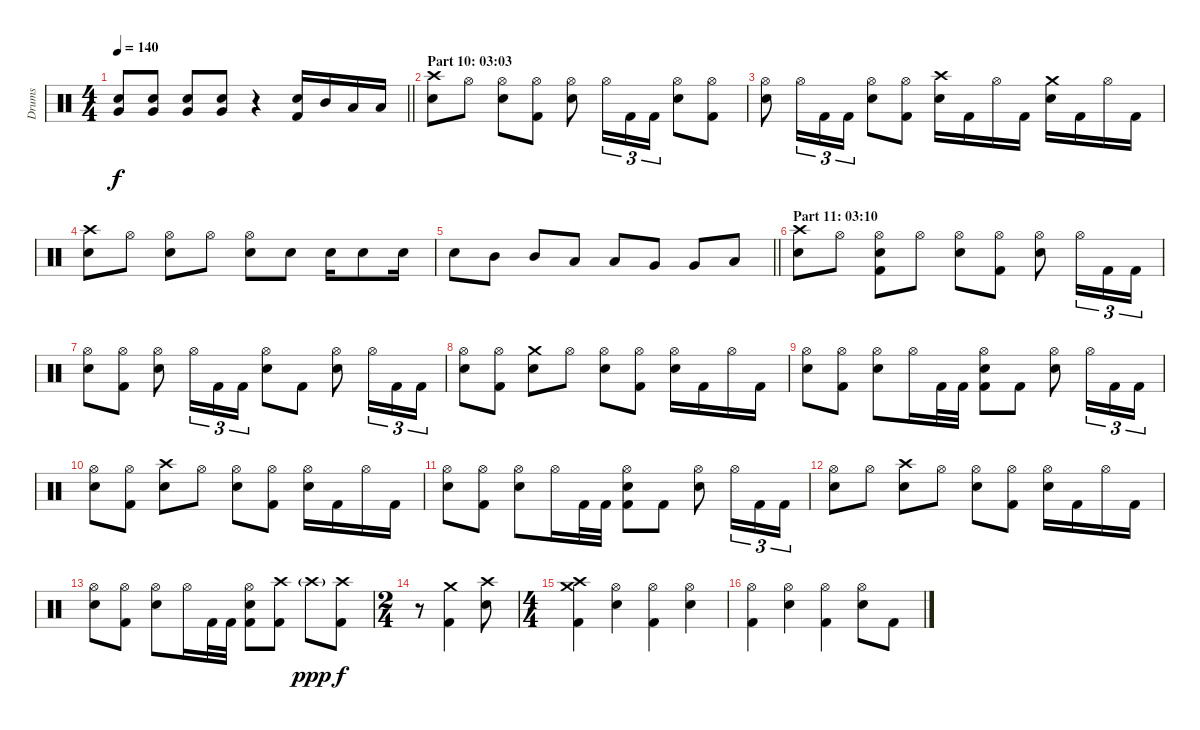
\track ("Drums" "Drums") {instrument percussion}
\staff {score}
\articulation defaults
\ts (4 4)
\tempo 140
\clef neutral
\barLineRight lightlight
\ks c
("Electric Snare (hit)" "Very Low Tom (hit)").8{dy f} ("Electric Snare (hit)" "Very Low Tom (hit)").8 ("Electric Snare (hit)" "Very Low Tom (hit)").8 ("Electric Snare (hit)" "Very Low Tom (hit)").8 r.4 ("Electric Snare (hit)" "Kick (hit) 2").16 "Mid Tom (hit)".16 "Low Tom (hit)".16 "Low Tom (hit)".16 |
\section ("" "Part 10: 03:03")
("Crash high (hit)" "Electric Snare (hit)").8 "Hi-Hat (open)".8 ("Hi-Hat (open)" "Electric Snare (hit)").8 ("Hi-Hat (open)" "Kick (hit) 2").8 ("Hi-Hat (open)" "Electric Snare (hit)").8 "Hi-Hat (open)".16{tu (3 2)} "Kick (hit) 2".16{tu (3 2)} "Kick (hit) 2".16{tu (3 2)} ("Hi-Hat (open)" "Electric Snare (hit)").8 ("Hi-Hat (open)" "Kick (hit) 2").8 |
("Hi-Hat (open)" "Electric Snare (hit)").8 "Hi-Hat (open)".16{tu (3 2)} "Kick (hit) 2".16{tu (3 2)} "Kick (hit) 2".16{tu (3 2)} ("Hi-Hat (open)" "Electric Snare (hit)").8 ("Hi-Hat (open)" "Kick (hit) 2").8 ("Crash high (hit)" "Electric Snare (hit)").16 "Kick (hit) 2".16 "Hi-Hat (open)".16 "Kick (hit) 2".16 ("Crash medium (hit)" "Electric Snare (hit)").16 "Kick (hit) 2".16 "Hi-Hat (open)".16 "Kick (hit) 2".16 |
("Crash high (hit)" "Electric Snare (hit)").8 "Hi-Hat (open)".8 ("Hi-Hat (open)" "Electric Snare (hit)").8 "Hi-Hat (open)".8 ("Hi-Hat (open)" "Electric Snare (hit)").8 "Electric Snare (hit)".8 "Electric Snare (hit)".16 "Electric Snare (hit)".8 "Electric Snare (hit)".16 |
\barLineRight lightlight "Electric Snare (hit)".8 "Mid Tom (hit)".8 "Mid Tom (hit)".8 "Low Tom (hit)".8 "Low Tom (hit)".8 "Very Low Tom (hit)".8 "Very Low Tom (hit)".8 "Low Floor Tom (hit)".8
|
\section ("" "Part 11: 03:10")
("Crash high (hit)" "Electric Snare (hit)").8 "Hi-Hat (open)".8 ("Hi-Hat (open)" "Electric Snare (hit)" "Kick (hit) 2").8 "Hi-Hat (open)".8 ("Hi-Hat (open)" "Electric Snare (hit)").8 ("Hi-Hat (open)" "Kick (hit) 2").8 ("Hi-Hat (open)" "Electric Snare (hit)").8 "Hi-Hat (open)".16{tu (3 2)} "Kick (hit) 2".16{tu (3 2)} "Kick (hit) 2".16{tu (3 2)} |
("Hi-Hat (open)" "Electric Snare (hit)").8 ("Hi-Hat (open)" "Kick (hit) 2").8 ("Hi-Hat (open)" "Electric Snare (hit)").8 "Hi-Hat (open)".16{tu (3 2)} "Kick (hit) 2".16{tu (3 2)} "Kick (hit) 2".16{tu (3 2)} ("Hi-Hat (open)" "Electric Snare (hit)").8 "Kick (hit) 2".8 ("Hi-Hat (open)" "Electric Snare (hit)").8 "Hi-Hat (open)".16{tu (3 2)} "Kick (hit) 2".16{tu (3 2)} "Kick (hit) 2".16{tu (3 2)} |
("Hi-Hat (open)" "Electric Snare (hit)").8 ("Hi-Hat (open)" "Kick (hit) 2").8 ("Crash medium (hit)" "Electric Snare (hit)").8 "Hi-Hat (open)".8 ("Hi-Hat (open)" "Electric Snare (hit)").8 ("Hi-Hat (open)" "Kick (hit) 2").8 ("Hi-Hat (open)" "Electric Snare (hit)").16 "Kick (hit) 2".16 "Hi-Hat (open)".16 "Kick (hit) 2".16 |
("Hi-Hat (open)" "Electric Snare (hit)").8 ("Hi-Hat (open)" "Kick (hit) 2").8 ("Hi-Hat (open)" "Electric Snare (hit)").8 "Hi-Hat (open)".16 "Kick (hit) 2".32 "Kick (hit) 2".32 ("Hi-Hat (open)" "Electric Snare (hit)" "Kick (hit) 2").8 "Kick (hit) 2".8 ("Hi-Hat (open)" "Electric Snare (hit)").8 "Hi-Hat (open)".16{tu (3 2)} "Kick (hit) 2".16{tu (3 2)} "Kick (hit) 2".16{tu (3 2)} |
("Hi-Hat (open)" "Electric Snare (hit)").8 ("Hi-Hat (open)" "Kick (hit) 2").8 ("Crash high (hit)" "Electric Snare (hit)").8 "Hi-Hat (open)".8 ("Hi-Hat (open)" "Electric Snare (hit)").8 ("Hi-Hat (open)" "Kick (hit) 2").8 ("Hi-Hat (open)" "Electric Snare (hit)").16 "Kick (hit) 2".16 "Hi-Hat (open)".16 "Kick (hit) 2".16 |
("Hi-Hat (open)" "Electric Snare (hit)").8 ("Hi-Hat (open)" "Kick (hit) 2").8 ("Hi-Hat (open)" "Electric Snare (hit)").8 "Hi-Hat (open)".16 "Kick (hit) 2".32 "Kick (hit) 2".32 ("Hi-Hat (open)" "Electric Snare (hit)" "Kick (hit) 2").8 "Kick (hit) 2".8 ("Hi-Hat (open)" "Electric Snare (hit)").8 "Hi-Hat (open)".16{tu (3 2)} "Kick (hit) 2".16{tu (3 2)} "Kick (hit) 2".16{tu (3 2)} |
("Hi-Hat (open)" "Electric Snare (hit)").8 "Hi-Hat (open)".8 ("Crash high (hit)" "Electric Snare (hit)").8 "Hi-Hat (open)".8 ("Hi-Hat (open)" "Electric Snare (hit)").8 ("Hi-Hat (open)" "Kick (hit) 2").8 ("Hi-Hat (open)" "Electric Snare (hit)").16 "Kick (hit) 2".16 "Hi-Hat (open)".16 "Kick (hit) 2".16 |
("Hi-Hat (open)" "Electric Snare (hit)").8 ("Hi-Hat (open)" "Kick (hit) 2").8 ("Hi-Hat (open)" "Electric Snare (hit)").8 "Hi-Hat (open)".16 "Kick (hit) 2".32 "Kick (hit) 2".32 ("Hi-Hat (open)" "Electric Snare (hit)" "Kick (hit) 2").8 ("Crash high (hit)" "Kick (hit) 2").8 "Crash high (hit)"{g}.8{dy ppp} ("Crash high (hit)" "Kick (hit) 2").8{dy f} |
\ts (2 4)
r.8 ("Crash medium (hit)" "Kick (hit) 2").4 ("Crash high (hit)" "Electric Snare (hit)").8 |
\ts (4 4)
("Crash high (hit)" "Crash medium (hit)" "Kick (hit) 2").4 ("Hi-Hat (open)" "Electric Snare (hit)").4 ("Hi-Hat (open)" "Kick (hit) 2").4 ("Hi-Hat (open)" "Electric Snare (hit)").4 |
("Hi-Hat (open)" "Kick (hit) 2").4 ("Hi-Hat (open)" "Electric Snare (hit)").4 ("Hi-Hat (open)" "Kick (hit) 2").4 ("Hi-Hat (open)" "Electric Snare (hit)").8 "Kick (hit) 2".8
